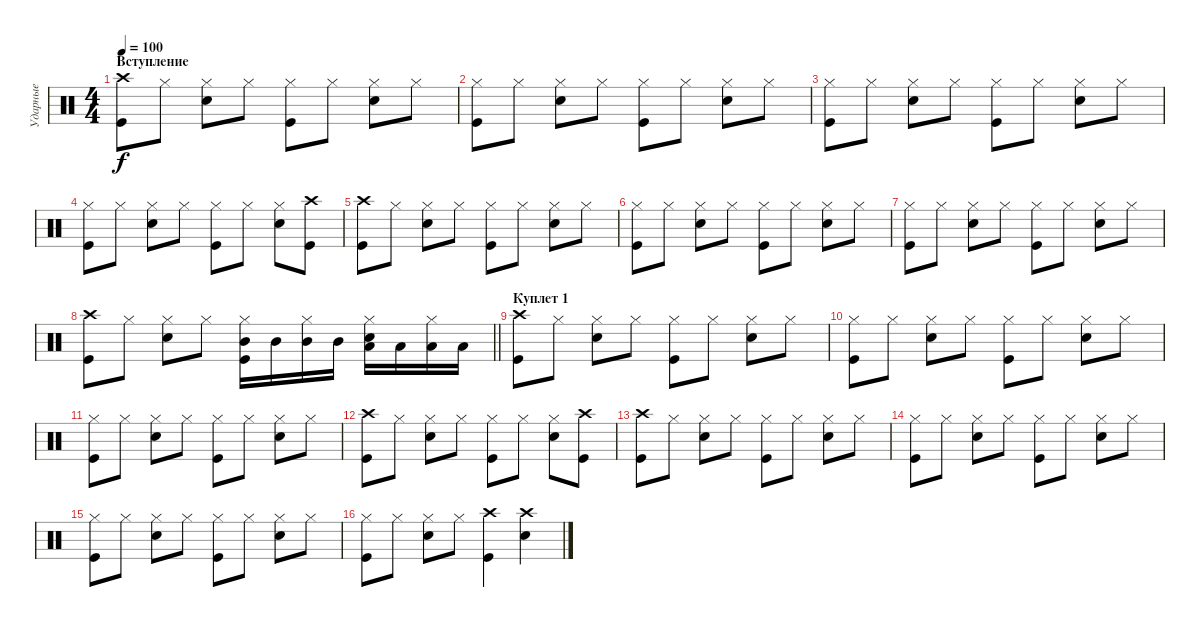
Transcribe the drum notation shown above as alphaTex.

\track ("Ударные" "Ударные") {instrument percussion}
\staff {score}
\articulation defaults
\ts (4 4)
\section ("" "Вступление")
\tempo 100
\clef neutral
\ks c
("Kick (hit)" "Crash high (hit)").8{dy f} "Hi-Hat (closed)".8 ("Snare (hit) 2" "Hi-Hat (closed)").8 "Hi-Hat (closed)".8 ("Kick (hit)" "Hi-Hat (closed)").8 "Hi-Hat (closed)".8 ("Snare (hit) 2" "Hi-Hat (closed)").8 "Hi-Hat (closed)".8 |
("Kick (hit)" "Hi-Hat (closed)").8 "Hi-Hat (closed)".8 ("Snare (hit) 2" "Hi-Hat (closed)").8 "Hi-Hat (closed)".8 ("Kick (hit)" "Hi-Hat (closed)").8 "Hi-Hat (closed)".8 ("Snare (hit) 2" "Hi-Hat (closed)").8 "Hi-Hat (closed)".8 |
("Kick (hit)" "Hi-Hat (closed)").8 "Hi-Hat (closed)".8 ("Snare (hit) 2" "Hi-Hat (closed)").8 "Hi-Hat (closed)".8 ("Kick (hit)" "Hi-Hat (closed)").8 "Hi-Hat (closed)".8 ("Snare (hit) 2" "Hi-Hat (closed)").8 "Hi-Hat (closed)".8 |
("Kick (hit)" "Hi-Hat (closed)").8 "Hi-Hat (closed)".8 ("Snare (hit) 2" "Hi-Hat (closed)").8 "Hi-Hat (closed)".8 ("Kick (hit)" "Hi-Hat (closed)").8 "Hi-Hat (closed)".8 ("Snare (hit) 2" "Hi-Hat (closed)").8 ("Kick (hit)" "Crash high (hit)").8 |
("Kick (hit)" "Crash high (hit)").8 "Hi-Hat (closed)".8 ("Snare (hit) 2" "Hi-Hat (closed)").8 "Hi-Hat (closed)".8 ("Kick (hit)" "Hi-Hat (closed)").8 "Hi-Hat (closed)".8 ("Snare (hit) 2" "Hi-Hat (closed)").8 "Hi-Hat (closed)".8 |
("Kick (hit)" "Hi-Hat (closed)").8 "Hi-Hat (closed)".8 ("Snare (hit) 2" "Hi-Hat (closed)").8 "Hi-Hat (closed)".8 ("Kick (hit)" "Hi-Hat (closed)").8 "Hi-Hat (closed)".8 ("Snare (hit) 2" "Hi-Hat (closed)").8 "Hi-Hat (closed)".8 |
("Kick (hit)" "Hi-Hat (closed)").8 "Hi-Hat (closed)".8 ("Snare (hit) 2" "Hi-Hat (closed)").8 "Hi-Hat (closed)".8 ("Kick (hit)" "Hi-Hat (closed)").8 "Hi-Hat (closed)".8 ("Snare (hit) 2" "Hi-Hat (closed)").8 "Hi-Hat (closed)".8 |
\barLineRight lightlight
("Kick (hit)" "Crash high (hit)").8 "Hi-Hat (closed)".8 ("Snare (hit) 2" "Hi-Hat (closed)").8 "Hi-Hat (closed)".8 ("Kick (hit)" "Mid Tom (hit)" "Hi-Hat (closed)").16 "Mid Tom (hit)".16 ("Mid Tom (hit)" "Hi-Hat (closed)").16 "Mid Tom (hit)".16 ("Snare (hit) 2" "Low Tom (hit)" "Hi-Hat (closed)").16 "Low Tom (hit)".16 ("Low Tom (hit)" "Hi-Hat (closed)").16 "Low Tom (hit)".16 |
\section ("" "Куплет 1")
("Kick (hit)" "Crash high (hit)").8 "Hi-Hat (closed)".8 ("Snare (hit) 2" "Hi-Hat (closed)").8 "Hi-Hat (closed)".8 ("Kick (hit)" "Hi-Hat (closed)").8 "Hi-Hat (closed)".8 ("Snare (hit) 2" "Hi-Hat (closed)").8 "Hi-Hat (closed)".8 |
("Kick (hit)" "Hi-Hat (closed)").8 "Hi-Hat (closed)".8 ("Snare (hit) 2" "Hi-Hat (closed)").8 "Hi-Hat (closed)".8 ("Kick (hit)" "Hi-Hat (closed)").8 "Hi-Hat (closed)".8 ("Snare (hit) 2" "Hi-Hat (closed)").8 "Hi-Hat (closed)".8 |
("Kick (hit)" "Hi-Hat (closed)").8 "Hi-Hat (closed)".8 ("Snare (hit) 2" "Hi-Hat (closed)").8 "Hi-Hat (closed)".8 ("Kick (hit)" "Hi-Hat (closed)").8 "Hi-Hat (closed)".8 ("Snare (hit) 2" "Hi-Hat (closed)").8 "Hi-Hat (closed)".8 |
("Kick (hit)" "Crash high (hit)").8 "Hi-Hat (closed)".8 ("Snare (hit) 2" "Hi-Hat (closed)").8 "Hi-Hat (closed)".8 ("Kick (hit)" "Hi-Hat (closed)").8 "Hi-Hat (closed)".8 ("Snare (hit) 2" "Hi-Hat (closed)").8 ("Kick (hit)" "Crash high (hit)").8 |
("Kick (hit)" "Crash high (hit)").8 "Hi-Hat (closed)".8 ("Snare (hit) 2" "Hi-Hat (closed)").8 "Hi-Hat (closed)".8 ("Kick (hit)" "Hi-Hat (closed)").8 "Hi-Hat (closed)".8 ("Snare (hit) 2" "Hi-Hat (closed)").8 "Hi-Hat (closed)".8 |
("Kick (hit)" "Hi-Hat (closed)").8 "Hi-Hat (closed)".8 ("Snare (hit) 2" "Hi-Hat (closed)").8 "Hi-Hat (closed)".8 ("Kick (hit)" "Hi-Hat (closed)").8 "Hi-Hat (closed)".8 ("Snare (hit) 2" "Hi-Hat (closed)").8 "Hi-Hat (closed)".8 |
("Kick (hit)" "Hi-Hat (closed)").8 "Hi-Hat (closed)".8 ("Snare (hit) 2" "Hi-Hat (closed)").8 "Hi-Hat (closed)".8 ("Kick (hit)" "Hi-Hat (closed)").8 "Hi-Hat (closed)".8 ("Snare (hit) 2" "Hi-Hat (closed)").8 "Hi-Hat (closed)".8 |
("Kick (hit)" "Hi-Hat (closed)").8 "Hi-Hat (closed)".8 ("Snare (hit) 2" "Hi-Hat (closed)").8 "Hi-Hat (closed)".8 ("Kick (hit)" "Crash high (hit)").4 ("Snare (hit) 2" "Crash high (hit)").4
